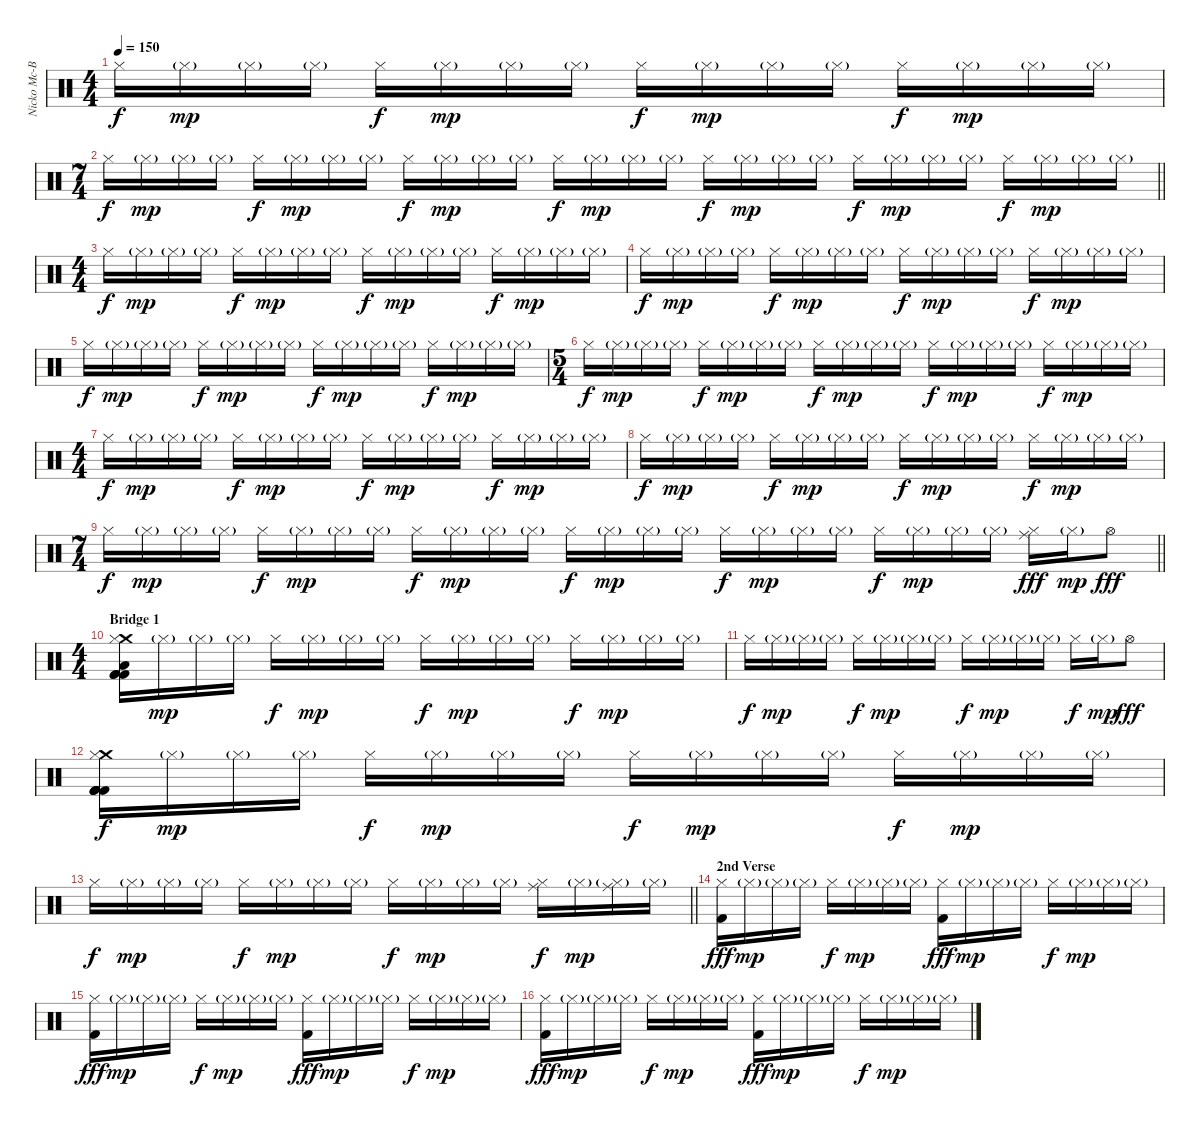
\track ("Nicko Mc-Brain" "Nicko Mc-B") {instrument percussion}
\staff {score}
\articulation defaults
\ts (4 4)
\tempo 150
\clef neutral
\ks c "Hi-Hat (closed)".16{dy f} "Hi-Hat (closed)"{g}.16{dy mp} "Hi-Hat (closed)"{g}.16 "Hi-Hat (closed)"{g}.16 "Hi-Hat (closed)".16{dy f} "Hi-Hat (closed)"{g}.16{dy mp} "Hi-Hat (closed)"{g}.16 "Hi-Hat (closed)"{g}.16 "Hi-Hat (closed)".16{dy f} "Hi-Hat (closed)"{g}.16{dy mp} "Hi-Hat (closed)"{g}.16 "Hi-Hat (closed)"{g}.16 "Hi-Hat (closed)".16{dy f} "Hi-Hat (closed)"{g}.16{dy mp} "Hi-Hat (closed)"{g}.16 "Hi-Hat (closed)"{g}.16
|
\ts (7 4)
\barLineRight lightlight "Hi-Hat (closed)".16{dy f} "Hi-Hat (closed)"{g}.16{dy mp} "Hi-Hat (closed)"{g}.16 "Hi-Hat (closed)"{g}.16 "Hi-Hat (closed)".16{dy f} "Hi-Hat (closed)"{g}.16{dy mp} "Hi-Hat (closed)"{g}.16 "Hi-Hat (closed)"{g}.16 "Hi-Hat (closed)".16{dy f} "Hi-Hat (closed)"{g}.16{dy mp} "Hi-Hat (closed)"{g}.16 "Hi-Hat (closed)"{g}.16 "Hi-Hat (closed)".16{dy f} "Hi-Hat (closed)"{g}.16{dy mp} "Hi-Hat (closed)"{g}.16 "Hi-Hat (closed)"{g}.16 "Hi-Hat (closed)".16{dy f} "Hi-Hat (closed)"{g}.16{dy mp} "Hi-Hat (closed)"{g}.16 "Hi-Hat (closed)"{g}.16 "Hi-Hat (closed)".16{dy f} "Hi-Hat (closed)"{g}.16{dy mp} "Hi-Hat (closed)"{g}.16 "Hi-Hat (closed)"{g}.16 "Hi-Hat (closed)".16{dy f} "Hi-Hat (closed)"{g}.16{dy mp} "Hi-Hat (closed)"{g}.16 "Hi-Hat (closed)"{g}.16
|
\ts (4 4)
"Hi-Hat (closed)".16{dy f} "Hi-Hat (closed)"{g}.16{dy mp} "Hi-Hat (closed)"{g}.16 "Hi-Hat (closed)"{g}.16 "Hi-Hat (closed)".16{dy f} "Hi-Hat (closed)"{g}.16{dy mp} "Hi-Hat (closed)"{g}.16 "Hi-Hat (closed)"{g}.16 "Hi-Hat (closed)".16{dy f} "Hi-Hat (closed)"{g}.16{dy mp} "Hi-Hat (closed)"{g}.16 "Hi-Hat (closed)"{g}.16 "Hi-Hat (closed)".16{dy f} "Hi-Hat (closed)"{g}.16{dy mp} "Hi-Hat (closed)"{g}.16 "Hi-Hat (closed)"{g}.16 |
"Hi-Hat (closed)".16{dy f} "Hi-Hat (closed)"{g}.16{dy mp} "Hi-Hat (closed)"{g}.16 "Hi-Hat (closed)"{g}.16 "Hi-Hat (closed)".16{dy f} "Hi-Hat (closed)"{g}.16{dy mp} "Hi-Hat (closed)"{g}.16 "Hi-Hat (closed)"{g}.16 "Hi-Hat (closed)".16{dy f} "Hi-Hat (closed)"{g}.16{dy mp} "Hi-Hat (closed)"{g}.16 "Hi-Hat (closed)"{g}.16 "Hi-Hat (closed)".16{dy f} "Hi-Hat (closed)"{g}.16{dy mp} "Hi-Hat (closed)"{g}.16 "Hi-Hat (closed)"{g}.16 |
"Hi-Hat (closed)".16{dy f} "Hi-Hat (closed)"{g}.16{dy mp} "Hi-Hat (closed)"{g}.16 "Hi-Hat (closed)"{g}.16 "Hi-Hat (closed)".16{dy f} "Hi-Hat (closed)"{g}.16{dy mp} "Hi-Hat (closed)"{g}.16 "Hi-Hat (closed)"{g}.16 "Hi-Hat (closed)".16{dy f} "Hi-Hat (closed)"{g}.16{dy mp} "Hi-Hat (closed)"{g}.16 "Hi-Hat (closed)"{g}.16 "Hi-Hat (closed)".16{dy f} "Hi-Hat (closed)"{g}.16{dy mp} "Hi-Hat (closed)"{g}.16 "Hi-Hat (closed)"{g}.16 |
\ts (5 4)
"Hi-Hat (closed)".16{dy f} "Hi-Hat (closed)"{g}.16{dy mp} "Hi-Hat (closed)"{g}.16 "Hi-Hat (closed)"{g}.16 "Hi-Hat (closed)".16{dy f} "Hi-Hat (closed)"{g}.16{dy mp} "Hi-Hat (closed)"{g}.16 "Hi-Hat (closed)"{g}.16 "Hi-Hat (closed)".16{dy f} "Hi-Hat (closed)"{g}.16{dy mp} "Hi-Hat (closed)"{g}.16 "Hi-Hat (closed)"{g}.16 "Hi-Hat (closed)".16{dy f} "Hi-Hat (closed)"{g}.16{dy mp} "Hi-Hat (closed)"{g}.16 "Hi-Hat (closed)"{g}.16 "Hi-Hat (closed)".16{dy f} "Hi-Hat (closed)"{g}.16{dy mp} "Hi-Hat (closed)"{g}.16 "Hi-Hat (closed)"{g}.16 |
\ts (4 4)
"Hi-Hat (closed)".16{dy f} "Hi-Hat (closed)"{g}.16{dy mp} "Hi-Hat (closed)"{g}.16 "Hi-Hat (closed)"{g}.16 "Hi-Hat (closed)".16{dy f} "Hi-Hat (closed)"{g}.16{dy mp} "Hi-Hat (closed)"{g}.16 "Hi-Hat (closed)"{g}.16 "Hi-Hat (closed)".16{dy f} "Hi-Hat (closed)"{g}.16{dy mp} "Hi-Hat (closed)"{g}.16 "Hi-Hat (closed)"{g}.16 "Hi-Hat (closed)".16{dy f} "Hi-Hat (closed)"{g}.16{dy mp} "Hi-Hat (closed)"{g}.16 "Hi-Hat (closed)"{g}.16 |
"Hi-Hat (closed)".16{dy f} "Hi-Hat (closed)"{g}.16{dy mp} "Hi-Hat (closed)"{g}.16 "Hi-Hat (closed)"{g}.16 "Hi-Hat (closed)".16{dy f} "Hi-Hat (closed)"{g}.16{dy mp} "Hi-Hat (closed)"{g}.16 "Hi-Hat (closed)"{g}.16 "Hi-Hat (closed)".16{dy f} "Hi-Hat (closed)"{g}.16{dy mp} "Hi-Hat (closed)"{g}.16 "Hi-Hat (closed)"{g}.16 "Hi-Hat (closed)".16{dy f} "Hi-Hat (closed)"{g}.16{dy mp} "Hi-Hat (closed)"{g}.16 "Hi-Hat (closed)"{g}.16 |
\ts (7 4)
\barLineRight lightlight "Hi-Hat (closed)".16{dy f} "Hi-Hat (closed)"{g}.16{dy mp} "Hi-Hat (closed)"{g}.16 "Hi-Hat (closed)"{g}.16 "Hi-Hat (closed)".16{dy f} "Hi-Hat (closed)"{g}.16{dy mp} "Hi-Hat (closed)"{g}.16 "Hi-Hat (closed)"{g}.16 "Hi-Hat (closed)".16{dy f} "Hi-Hat (closed)"{g}.16{dy mp} "Hi-Hat (closed)"{g}.16 "Hi-Hat (closed)"{g}.16 "Hi-Hat (closed)".16{dy f} "Hi-Hat (closed)"{g}.16{dy mp} "Hi-Hat (closed)"{g}.16 "Hi-Hat (closed)"{g}.16 "Hi-Hat (closed)".16{dy f} "Hi-Hat (closed)"{g}.16{dy mp} "Hi-Hat (closed)"{g}.16 "Hi-Hat (closed)"{g}.16 "Hi-Hat (closed)".16{dy f} "Hi-Hat (closed)"{g}.16{dy mp} "Hi-Hat (closed)"{g}.16 "Hi-Hat (closed)"{g}.16
("Ride (middle)" "Hi-Hat (closed)").16{dy fff} "Hi-Hat (closed)"{g}.16{dy mp} "Hi-Hat (open)".8{dy fff} |
\ts (4 4)
\section ("" "Bridge 1")
("Crash medium (hit)" "Low Floor Tom (hit)" "Kick (hit) 2" "Kick (hit) 2" "Hi-Hat (closed)" "Kick (hit) 2").16 "Hi-Hat (closed)"{g}.16{dy mp} "Hi-Hat (closed)"{g}.16 "Hi-Hat (closed)"{g}.16 "Hi-Hat (closed)".16{dy f} "Hi-Hat (closed)"{g}.16{dy mp} "Hi-Hat (closed)"{g}.16 "Hi-Hat (closed)"{g}.16 "Hi-Hat (closed)".16{dy f} "Hi-Hat (closed)"{g}.16{dy mp} "Hi-Hat (closed)"{g}.16 "Hi-Hat (closed)"{g}.16 "Hi-Hat (closed)".16{dy f} "Hi-Hat (closed)"{g}.16{dy mp} "Hi-Hat (closed)"{g}.16 "Hi-Hat (closed)"{g}.16 |
"Hi-Hat (closed)".16{dy f} "Hi-Hat (closed)"{g}.16{dy mp} "Hi-Hat (closed)"{g}.16 "Hi-Hat (closed)"{g}.16 "Hi-Hat (closed)".16{dy f} "Hi-Hat (closed)"{g}.16{dy mp} "Hi-Hat (closed)"{g}.16 "Hi-Hat (closed)"{g}.16 "Hi-Hat (closed)".16{dy f} "Hi-Hat (closed)"{g}.16{dy mp} "Hi-Hat (closed)"{g}.16 "Hi-Hat (closed)"{g}.16 "Hi-Hat (closed)".16{dy f} "Hi-Hat (closed)"{g}.16{dy mp} "Hi-Hat (open)".8{dy fff} |
("Crash medium (hit)" "Kick (hit) 2" "Kick (hit) 2" "Kick (hit) 2" "Hi-Hat (closed)" "Kick (hit) 2").16{dy f} "Hi-Hat (closed)"{g}.16{dy mp} "Hi-Hat (closed)"{g}.16 "Hi-Hat (closed)"{g}.16 "Hi-Hat (closed)".16{dy f} "Hi-Hat (closed)"{g}.16{dy mp} "Hi-Hat (closed)"{g}.16 "Hi-Hat (closed)"{g}.16 "Hi-Hat (closed)".16{dy f} "Hi-Hat (closed)"{g}.16{dy mp} "Hi-Hat (closed)"{g}.16 "Hi-Hat (closed)"{g}.16 "Hi-Hat (closed)".16{dy f} "Hi-Hat (closed)"{g}.16{dy mp} "Hi-Hat (closed)"{g}.16 "Hi-Hat (closed)"{g}.16 |
\barLineRight lightlight "Hi-Hat (closed)".16{dy f} "Hi-Hat (closed)"{g}.16{dy mp} "Hi-Hat (closed)"{g}.16 "Hi-Hat (closed)"{g}.16 "Hi-Hat (closed)".16{dy f} "Hi-Hat (closed)"{g}.16{dy mp} "Hi-Hat (closed)"{g}.16 "Hi-Hat (closed)"{g}.16 "Hi-Hat (closed)".16{dy f} "Hi-Hat (closed)"{g}.16{dy mp} "Hi-Hat (closed)"{g}.16 "Hi-Hat (closed)"{g}.16
("Ride (middle)" "Hi-Hat (closed)").16{dy f} "Hi-Hat (closed)"{g}.16{dy mp} ("Ride (middle)" "Hi-Hat (closed)"{g}).16 "Hi-Hat (closed)"{g}.16 |
\section ("" "2nd Verse")
("Hi-Hat (closed)" "Kick (hit) 2").16{dy fff} "Hi-Hat (closed)"{g}.16{dy mp} "Hi-Hat (closed)"{g}.16 "Hi-Hat (closed)"{g}.16 "Hi-Hat (closed)".16{dy f} "Hi-Hat (closed)"{g}.16{dy mp} "Hi-Hat (closed)"{g}.16 "Hi-Hat (closed)"{g}.16 ("Hi-Hat (closed)" "Kick (hit) 2").16{dy fff} "Hi-Hat (closed)"{g}.16{dy mp} "Hi-Hat (closed)"{g}.16 "Hi-Hat (closed)"{g}.16 "Hi-Hat (closed)".16{dy f} "Hi-Hat (closed)"{g}.16{dy mp} "Hi-Hat (closed)"{g}.16 "Hi-Hat (closed)"{g}.16 |
("Hi-Hat (closed)" "Kick (hit) 2").16{dy fff} "Hi-Hat (closed)"{g}.16{dy mp} "Hi-Hat (closed)"{g}.16 "Hi-Hat (closed)"{g}.16 "Hi-Hat (closed)".16{dy f} "Hi-Hat (closed)"{g}.16{dy mp} "Hi-Hat (closed)"{g}.16 "Hi-Hat (closed)"{g}.16 ("Hi-Hat (closed)" "Kick (hit) 2").16{dy fff} "Hi-Hat (closed)"{g}.16{dy mp} "Hi-Hat (closed)"{g}.16 "Hi-Hat (closed)"{g}.16 "Hi-Hat (closed)".16{dy f} "Hi-Hat (closed)"{g}.16{dy mp} "Hi-Hat (closed)"{g}.16 "Hi-Hat (closed)"{g}.16 |
("Hi-Hat (closed)" "Kick (hit) 2").16{dy fff} "Hi-Hat (closed)"{g}.16{dy mp} "Hi-Hat (closed)"{g}.16 "Hi-Hat (closed)"{g}.16 "Hi-Hat (closed)".16{dy f} "Hi-Hat (closed)"{g}.16{dy mp} "Hi-Hat (closed)"{g}.16 "Hi-Hat (closed)"{g}.16 ("Hi-Hat (closed)" "Kick (hit) 2").16{dy fff} "Hi-Hat (closed)"{g}.16{dy mp} "Hi-Hat (closed)"{g}.16 "Hi-Hat (closed)"{g}.16 "Hi-Hat (closed)".16{dy f} "Hi-Hat (closed)"{g}.16{dy mp} "Hi-Hat (closed)"{g}.16 "Hi-Hat (closed)"{g}.16
